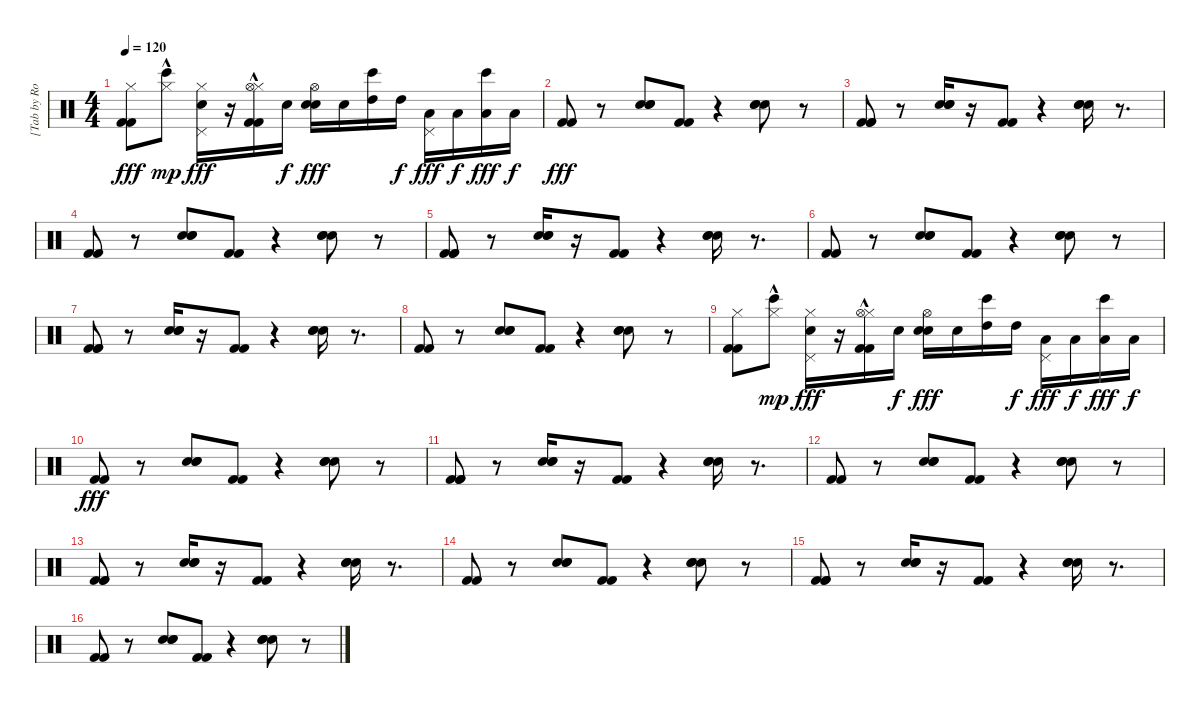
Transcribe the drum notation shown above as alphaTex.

\track ("[Tab by Rodrigo Takahashi]" "[Tab by Ro") {instrument percussion}
\staff {score}
\articulation defaults
\ts (4 4)
\tempo 120
\clef neutral
\ks c
("Hi-Hat (closed)" "Kick (hit) 2" "Kick (hit) 2").8{dy fff} ("Bongo High (hit)"{hac} "Hi-Hat (closed)").8{dy mp} ("Hi-Hat (closed)" "Snare (hit) 2" "Pedal Hi-Hat (hit)").16{dy fff} r.16 ("Hi-Hat (closed)" "Kick (hit) 2"{hac} "Kick (hit) 2"{hac} "Hi-Hat (open)").16 "Snare (hit) 2".16{dy f} ("Snare (hit) 2" "Hi-Hat (open)" "Snare (hit) 2").16{dy fff} "Snare (hit) 2".16 ("High Tom (hit)" "Bongo High (hit)").16 "High Tom (hit)".16{dy f} ("Low Tom (hit)" "Pedal Hi-Hat (hit)").16{dy fff} "Low Tom (hit)".16{dy f} ("Low Floor Tom (hit)" "Bongo High (hit)").16{dy fff} "Low Floor Tom (hit)".16{dy f} |
("Kick (hit) 2" "Kick (hit) 2").8{dy fff} r.8 ("Hand Clap (hit)" "Electric Snare (hit)" "Snare (hit) 2").8 ("Kick (hit) 2" "Kick (hit) 2").8 r.4 ("Electric Snare (hit)" "Snare (hit) 2" "Hand Clap (hit)").8 r.8 |
("Kick (hit) 2" "Kick (hit) 2" "Kick (hit) 2").8 r.8 ("Electric Snare (hit)" "Snare (hit) 2" "Hand Clap (hit)").16 r.16 ("Kick (hit) 2" "Kick (hit) 2").8 r.4 ("Electric Snare (hit)" "Snare (hit) 2" "Hand Clap (hit)").16 r.8{d} |
("Kick (hit) 2" "Kick (hit) 2").8 r.8 ("Hand Clap (hit)" "Electric Snare (hit)" "Snare (hit) 2").8 ("Kick (hit) 2" "Kick (hit) 2").8 r.4 ("Electric Snare (hit)" "Snare (hit) 2" "Hand Clap (hit)").8 r.8 |
("Kick (hit) 2" "Kick (hit) 2" "Kick (hit) 2").8 r.8 ("Electric Snare (hit)" "Snare (hit) 2" "Hand Clap (hit)").16 r.16 ("Kick (hit) 2" "Kick (hit) 2").8 r.4 ("Electric Snare (hit)" "Snare (hit) 2" "Hand Clap (hit)").16 r.8{d} |
("Kick (hit) 2" "Kick (hit) 2").8 r.8 ("Hand Clap (hit)" "Electric Snare (hit)" "Snare (hit) 2").8 ("Kick (hit) 2" "Kick (hit) 2").8 r.4 ("Electric Snare (hit)" "Snare (hit) 2" "Hand Clap (hit)").8 r.8 |
("Kick (hit) 2" "Kick (hit) 2" "Kick (hit) 2").8 r.8 ("Electric Snare (hit)" "Snare (hit) 2" "Hand Clap (hit)").16 r.16 ("Kick (hit) 2" "Kick (hit) 2").8 r.4 ("Electric Snare (hit)" "Snare (hit) 2" "Hand Clap (hit)").16 r.8{d} |
("Kick (hit) 2" "Kick (hit) 2").8 r.8 ("Hand Clap (hit)" "Electric Snare (hit)" "Snare (hit) 2").8 ("Kick (hit) 2" "Kick (hit) 2").8 r.4 ("Electric Snare (hit)" "Snare (hit) 2" "Hand Clap (hit)").8 r.8 |
("Hi-Hat (closed)" "Kick (hit) 2" "Kick (hit) 2").8 ("Bongo High (hit)"{hac} "Hi-Hat (closed)").8{dy mp} ("Hi-Hat (closed)" "Snare (hit) 2" "Pedal Hi-Hat (hit)").16{dy fff} r.16 ("Hi-Hat (closed)" "Kick (hit) 2"{hac} "Kick (hit) 2"{hac} "Hi-Hat (open)").16 "Snare (hit) 2".16{dy f} ("Snare (hit) 2" "Hi-Hat (open)" "Snare (hit) 2").16{dy fff} "Snare (hit) 2".16 ("High Tom (hit)" "Bongo High (hit)").16 "High Tom (hit)".16{dy f} ("Low Tom (hit)" "Pedal Hi-Hat (hit)").16{dy fff} "Low Tom (hit)".16{dy f} ("Low Floor Tom (hit)" "Bongo High (hit)").16{dy fff} "Low Floor Tom (hit)".16{dy f} |
("Kick (hit) 2" "Kick (hit) 2").8{dy fff} r.8 ("Hand Clap (hit)" "Electric Snare (hit)" "Snare (hit) 2").8 ("Kick (hit) 2" "Kick (hit) 2").8 r.4 ("Electric Snare (hit)" "Snare (hit) 2" "Hand Clap (hit)").8 r.8 |
("Kick (hit) 2" "Kick (hit) 2" "Kick (hit) 2").8 r.8 ("Electric Snare (hit)" "Snare (hit) 2" "Hand Clap (hit)").16 r.16 ("Kick (hit) 2" "Kick (hit) 2").8 r.4 ("Electric Snare (hit)" "Snare (hit) 2" "Hand Clap (hit)").16 r.8{d} |
("Kick (hit) 2" "Kick (hit) 2").8 r.8 ("Hand Clap (hit)" "Electric Snare (hit)" "Snare (hit) 2").8 ("Kick (hit) 2" "Kick (hit) 2").8 r.4 ("Electric Snare (hit)" "Snare (hit) 2" "Hand Clap (hit)").8 r.8 |
("Kick (hit) 2" "Kick (hit) 2" "Kick (hit) 2").8 r.8 ("Electric Snare (hit)" "Snare (hit) 2" "Hand Clap (hit)").16 r.16 ("Kick (hit) 2" "Kick (hit) 2").8 r.4 ("Electric Snare (hit)" "Snare (hit) 2" "Hand Clap (hit)").16 r.8{d} |
("Kick (hit) 2" "Kick (hit) 2").8 r.8 ("Hand Clap (hit)" "Electric Snare (hit)" "Snare (hit) 2").8 ("Kick (hit) 2" "Kick (hit) 2").8 r.4 ("Electric Snare (hit)" "Snare (hit) 2" "Hand Clap (hit)").8 r.8 |
("Kick (hit) 2" "Kick (hit) 2" "Kick (hit) 2").8 r.8 ("Electric Snare (hit)" "Snare (hit) 2" "Hand Clap (hit)").16 r.16 ("Kick (hit) 2" "Kick (hit) 2").8 r.4 ("Electric Snare (hit)" "Snare (hit) 2" "Hand Clap (hit)").16 r.8{d} |
("Kick (hit) 2" "Kick (hit) 2").8 r.8 ("Hand Clap (hit)" "Electric Snare (hit)" "Snare (hit) 2").8 ("Kick (hit) 2" "Kick (hit) 2").8 r.4 ("Electric Snare (hit)" "Snare (hit) 2" "Hand Clap (hit)").8 r.8
